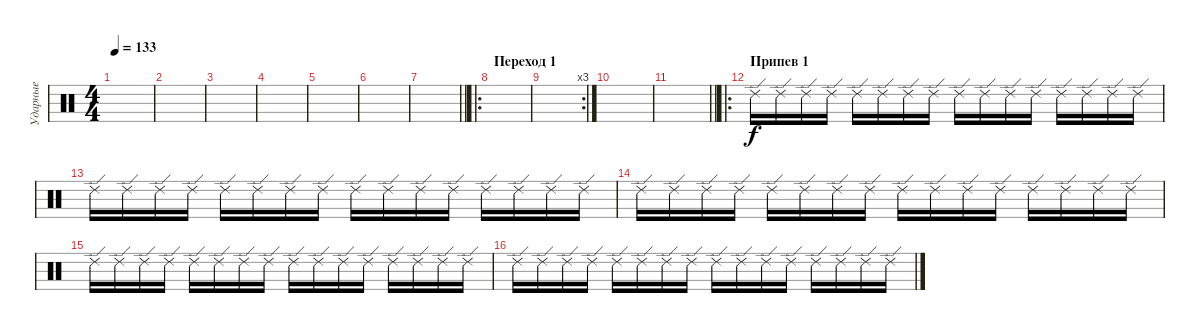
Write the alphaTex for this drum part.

\track ("Ударные" "Ударные") {instrument percussion}
\staff {score}
\articulation defaults
\ts (4 4)
\tempo 133
\clef neutral
\ks c
|
|
|
|
|
|
\barLineRight lightlight
|
\ro
\section ("" "Переход 1")
|
\rc 3
|
|
\barLineRight lightlight
|
\ro
\section ("" "Припев 1")
"Ride (edge) 2".16 "Ride (edge) 2".16 "Ride (edge) 2".16 "Ride (edge) 2".16 "Ride (edge) 2".16 "Ride (edge) 2".16 "Ride (edge) 2".16 "Ride (edge) 2".16 "Ride (edge) 2".16 "Ride (edge) 2".16 "Ride (edge) 2".16 "Ride (edge) 2".16 "Ride (edge) 2".16 "Ride (edge) 2".16 "Ride (edge) 2".16 "Ride (edge) 2".16 |
"Ride (edge) 2".16 "Ride (edge) 2".16 "Ride (edge) 2".16 "Ride (edge) 2".16 "Ride (edge) 2".16 "Ride (edge) 2".16 "Ride (edge) 2".16 "Ride (edge) 2".16 "Ride (edge) 2".16 "Ride (edge) 2".16 "Ride (edge) 2".16 "Ride (edge) 2".16 "Ride (edge) 2".16 "Ride (edge) 2".16 "Ride (edge) 2".16 "Ride (edge) 2".16 |
"Ride (edge) 2".16 "Ride (edge) 2".16 "Ride (edge) 2".16 "Ride (edge) 2".16 "Ride (edge) 2".16 "Ride (edge) 2".16 "Ride (edge) 2".16 "Ride (edge) 2".16 "Ride (edge) 2".16 "Ride (edge) 2".16 "Ride (edge) 2".16 "Ride (edge) 2".16 "Ride (edge) 2".16 "Ride (edge) 2".16 "Ride (edge) 2".16 "Ride (edge) 2".16 |
"Ride (edge) 2".16 "Ride (edge) 2".16 "Ride (edge) 2".16 "Ride (edge) 2".16 "Ride (edge) 2".16 "Ride (edge) 2".16 "Ride (edge) 2".16 "Ride (edge) 2".16 "Ride (edge) 2".16 "Ride (edge) 2".16 "Ride (edge) 2".16 "Ride (edge) 2".16 "Ride (edge) 2".16 "Ride (edge) 2".16 "Ride (edge) 2".16 "Ride (edge) 2".16 |
"Ride (edge) 2".16 "Ride (edge) 2".16 "Ride (edge) 2".16 "Ride (edge) 2".16 "Ride (edge) 2".16 "Ride (edge) 2".16 "Ride (edge) 2".16 "Ride (edge) 2".16 "Ride (edge) 2".16 "Ride (edge) 2".16 "Ride (edge) 2".16 "Ride (edge) 2".16 "Ride (edge) 2".16 "Ride (edge) 2".16 "Ride (edge) 2".16 "Ride (edge) 2".16
